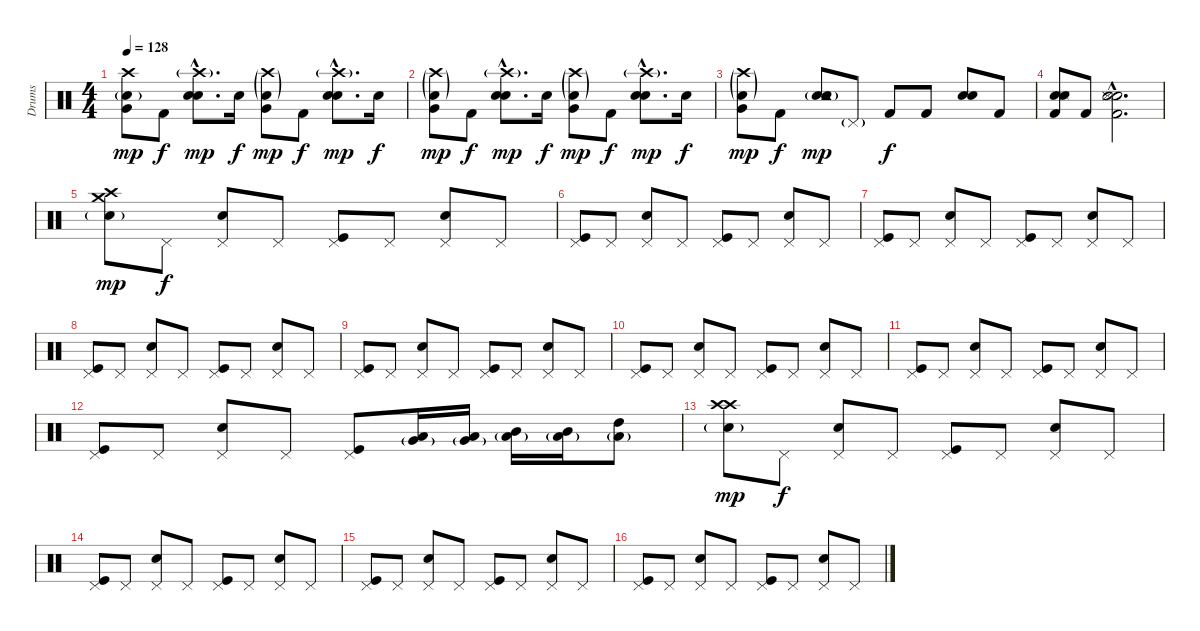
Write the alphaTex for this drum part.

\track ("Drums" "Drums") {instrument percussion}
\staff {score}
\articulation defaults
\ts (4 4)
\tempo 128
\clef neutral
\ks c
("Very Low Tom (hit)" "Electric Snare (hit)"{g} "Crash high (hit)").8{dy mp} "Kick (hit) 2".8{dy f} ("Electric Snare (hit)"{hac} "Electric Snare (hit)"{hac} "Crash high (hit)"{g hac}).8{d dy mp} "Electric Snare (hit)".16{dy f} ("Very Low Tom (hit)" "Electric Snare (hit)"{g} "Crash high (hit)"{g}).8{dy mp} "Kick (hit) 2".8{dy f} ("Electric Snare (hit)"{hac} "Electric Snare (hit)"{hac} "Crash high (hit)"{g hac}).8{d dy mp} "Electric Snare (hit)".16{dy f} |
("Very Low Tom (hit)" "Electric Snare (hit)"{g} "Crash high (hit)"{g}).8{dy mp} "Kick (hit) 2".8{dy f} ("Electric Snare (hit)"{hac} "Electric Snare (hit)"{hac} "Crash high (hit)"{g hac}).8{d dy mp} "Electric Snare (hit)".16{dy f} ("Very Low Tom (hit)" "Electric Snare (hit)"{g} "Crash high (hit)"{g}).8{dy mp} "Kick (hit) 2".8{dy f} ("Electric Snare (hit)"{hac} "Electric Snare (hit)"{hac} "Crash high (hit)"{g hac}).8{d dy mp} "Electric Snare (hit)".16{dy f} |
("Very Low Tom (hit)" "Electric Snare (hit)"{g} "Crash high (hit)"{g}).8{dy mp} "Kick (hit) 2".8{dy f} ("Electric Snare (hit)" "Electric Snare (hit)" "Tambourine (hit)"{g}).8{dy mp} "Pedal Hi-Hat (hit)"{g}.8 "Kick (hit) 2".8{dy f} "Kick (hit) 2".8 ("Electric Snare (hit)" "Electric Snare (hit)").8 "Kick (hit) 2".8 |
("Electric Snare (hit)" "Electric Snare (hit)" "Kick (hit) 2" "Snare (side stick) 3").8 "Kick (hit) 2".8 ("Electric Snare (hit)"{hac} "Electric Snare (hit)"{hac} "Kick (hit) 2"{hac} "Snare (side stick) 3"{hac}).2{d} |
("Crash high (hit)" "Crash medium (hit)" "Electric Snare (hit)"{g}).8{dy mp} "Pedal Hi-Hat (hit)".8{dy f} ("Pedal Hi-Hat (hit)" "Electric Snare (hit)").8 "Pedal Hi-Hat (hit)".8 ("Pedal Hi-Hat (hit)" "Kick (hit)").8 "Pedal Hi-Hat (hit)".8 ("Pedal Hi-Hat (hit)" "Electric Snare (hit)").8 "Pedal Hi-Hat (hit)".8 |
("Pedal Hi-Hat (hit)" "Kick (hit)").8 "Pedal Hi-Hat (hit)".8 ("Pedal Hi-Hat (hit)" "Electric Snare (hit)").8 "Pedal Hi-Hat (hit)".8 ("Pedal Hi-Hat (hit)" "Kick (hit)").8 "Pedal Hi-Hat (hit)".8 ("Pedal Hi-Hat (hit)" "Electric Snare (hit)").8 "Pedal Hi-Hat (hit)".8 |
("Pedal Hi-Hat (hit)" "Kick (hit)").8 "Pedal Hi-Hat (hit)".8 ("Pedal Hi-Hat (hit)" "Electric Snare (hit)").8 "Pedal Hi-Hat (hit)".8 ("Pedal Hi-Hat (hit)" "Kick (hit)").8 "Pedal Hi-Hat (hit)".8 ("Pedal Hi-Hat (hit)" "Electric Snare (hit)").8 "Pedal Hi-Hat (hit)".8 |
("Pedal Hi-Hat (hit)" "Kick (hit)").8 "Pedal Hi-Hat (hit)".8 ("Pedal Hi-Hat (hit)" "Electric Snare (hit)").8 "Pedal Hi-Hat (hit)".8 ("Pedal Hi-Hat (hit)" "Kick (hit)").8 "Pedal Hi-Hat (hit)".8 ("Pedal Hi-Hat (hit)" "Electric Snare (hit)").8 "Pedal Hi-Hat (hit)".8 |
("Pedal Hi-Hat (hit)" "Kick (hit)").8 "Pedal Hi-Hat (hit)".8 ("Pedal Hi-Hat (hit)" "Electric Snare (hit)").8 "Pedal Hi-Hat (hit)".8 ("Pedal Hi-Hat (hit)" "Kick (hit)").8 "Pedal Hi-Hat (hit)".8 ("Pedal Hi-Hat (hit)" "Electric Snare (hit)").8 "Pedal Hi-Hat (hit)".8 |
("Pedal Hi-Hat (hit)" "Kick (hit)").8 "Pedal Hi-Hat (hit)".8 ("Pedal Hi-Hat (hit)" "Electric Snare (hit)").8 "Pedal Hi-Hat (hit)".8 ("Pedal Hi-Hat (hit)" "Kick (hit)").8 "Pedal Hi-Hat (hit)".8 ("Pedal Hi-Hat (hit)" "Electric Snare (hit)").8 "Pedal Hi-Hat (hit)".8 |
("Pedal Hi-Hat (hit)" "Kick (hit)").8 "Pedal Hi-Hat (hit)".8 ("Pedal Hi-Hat (hit)" "Electric Snare (hit)").8 "Pedal Hi-Hat (hit)".8 ("Pedal Hi-Hat (hit)" "Kick (hit)").8 "Pedal Hi-Hat (hit)".8 ("Pedal Hi-Hat (hit)" "Electric Snare (hit)").8 "Pedal Hi-Hat (hit)".8 |
("Pedal Hi-Hat (hit)" "Kick (hit)").8 "Pedal Hi-Hat (hit)".8 ("Pedal Hi-Hat (hit)" "Electric Snare (hit)").8 "Pedal Hi-Hat (hit)".8 ("Pedal Hi-Hat (hit)" "Kick (hit)").8 ("Low Tom (hit)" "Very Low Tom (hit)"{g}).16 ("Low Tom (hit)" "Very Low Tom (hit)"{g}).16 ("Mid Tom (hit)" "Low Tom (hit)"{g}).16 ("Mid Tom (hit)" "Low Tom (hit)"{g}).16 ("High Tom (hit)" "Low Floor Tom (hit)"{g}).8 |
("Crash high (hit)" "Crash high (hit)" "Electric Snare (hit)"{g}).8{dy mp} "Pedal Hi-Hat (hit)".8{dy f} ("Pedal Hi-Hat (hit)" "Electric Snare (hit)").8 "Pedal Hi-Hat (hit)".8 ("Pedal Hi-Hat (hit)" "Kick (hit)").8 "Pedal Hi-Hat (hit)".8 ("Pedal Hi-Hat (hit)" "Electric Snare (hit)").8 "Pedal Hi-Hat (hit)".8 |
("Pedal Hi-Hat (hit)" "Kick (hit)").8 "Pedal Hi-Hat (hit)".8 ("Pedal Hi-Hat (hit)" "Electric Snare (hit)").8 "Pedal Hi-Hat (hit)".8 ("Pedal Hi-Hat (hit)" "Kick (hit)").8 "Pedal Hi-Hat (hit)".8 ("Pedal Hi-Hat (hit)" "Electric Snare (hit)").8 "Pedal Hi-Hat (hit)".8 |
("Pedal Hi-Hat (hit)" "Kick (hit)").8 "Pedal Hi-Hat (hit)".8 ("Pedal Hi-Hat (hit)" "Electric Snare (hit)").8 "Pedal Hi-Hat (hit)".8 ("Pedal Hi-Hat (hit)" "Kick (hit)").8 "Pedal Hi-Hat (hit)".8 ("Pedal Hi-Hat (hit)" "Electric Snare (hit)").8 "Pedal Hi-Hat (hit)".8 |
("Pedal Hi-Hat (hit)" "Kick (hit)").8 "Pedal Hi-Hat (hit)".8 ("Pedal Hi-Hat (hit)" "Electric Snare (hit)").8 "Pedal Hi-Hat (hit)".8 ("Pedal Hi-Hat (hit)" "Kick (hit)").8 "Pedal Hi-Hat (hit)".8 ("Pedal Hi-Hat (hit)" "Electric Snare (hit)").8 "Pedal Hi-Hat (hit)".8
